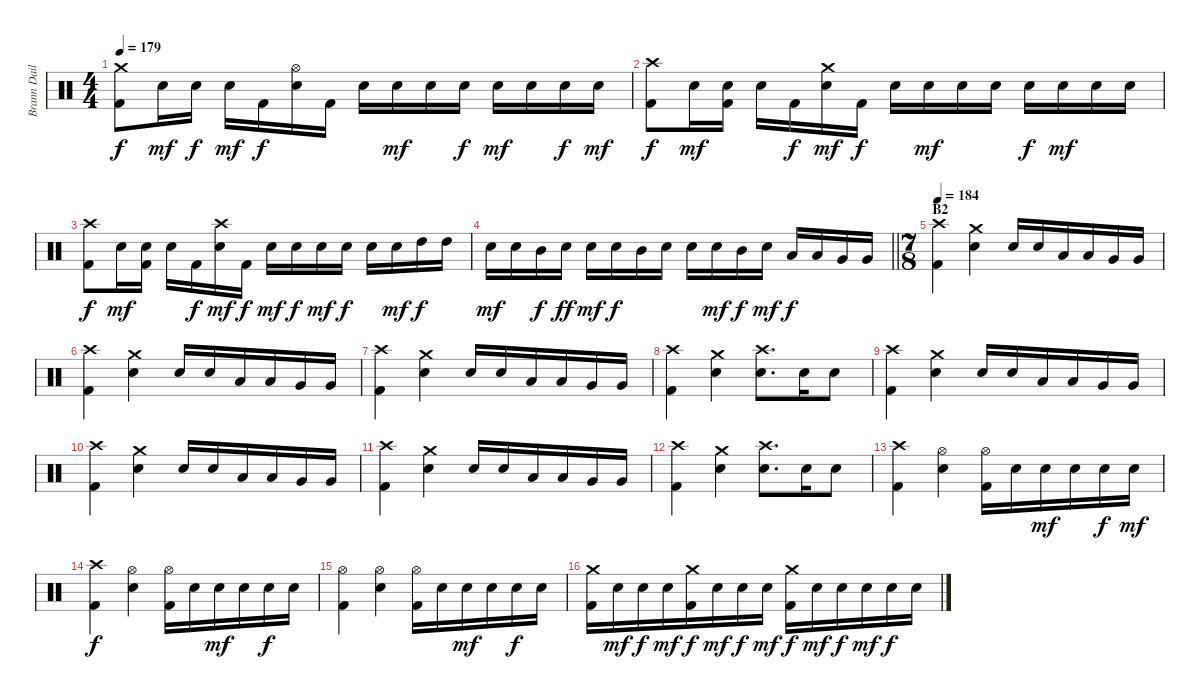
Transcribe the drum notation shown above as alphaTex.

\track ("Brann Dailor" "Brann Dail") {instrument percussion}
\staff {score}
\articulation defaults
\ts (4 4)
\tempo 179
\clef neutral
\ks c
("Crash medium (hit)" "Kick (hit) 2").8{dy f} "Snare (hit) 2".16{dy mf} "Snare (hit) 2".16{dy f} "Snare (hit) 2".16{dy mf} "Kick (hit) 2".16{dy f} ("Hi-Hat (open)" "Snare (hit) 2").16 "Kick (hit) 2".16 "Snare (hit) 2".16 "Snare (hit) 2".16{dy mf} "Snare (hit) 2".16 "Snare (hit) 2".16{dy f} "Snare (hit) 2".16{dy mf} "Snare (hit) 2".16 "Snare (hit) 2".16{dy f} "Snare (hit) 2".16{dy mf} |
("Crash high (hit)" "Kick (hit) 2").8{dy f} "Snare (hit) 2".16{dy mf} ("Snare (hit) 2" "Kick (hit) 2").16 "Snare (hit) 2".16 "Kick (hit) 2".16{dy f} ("Crash medium (hit)" "Snare (hit) 2").16{dy mf} "Kick (hit) 2".16{dy f} "Snare (hit) 2".16 "Snare (hit) 2".16{dy mf} "Snare (hit) 2".16 "Snare (hit) 2".16 "Snare (hit) 2".16{dy f} "Snare (hit) 2".16{dy mf} "Snare (hit) 2".16 "Snare (hit) 2".16 |
("Crash high (hit)" "Kick (hit) 2").8{dy f} "Snare (hit) 2".16{dy mf} ("Snare (hit) 2" "Kick (hit) 2").16 "Snare (hit) 2".16 "Kick (hit) 2".16{dy f} ("Crash high (hit)" "Snare (hit) 2").16{dy mf} "Kick (hit) 2".16{dy f} "Snare (hit) 2".16{dy mf} "Snare (hit) 2".16{dy f} "Snare (hit) 2".16{dy mf} "Snare (hit) 2".16{dy f} "Snare (hit) 2".16 "Snare (hit) 2".16{dy mf} "High Tom (hit)".16{dy f} "High Tom (hit)".16 |
\barLineRight lightlight "Snare (hit) 2".16{dy mf} "Snare (hit) 2".16 "Mid Tom (hit)".16{dy f} "Snare (hit) 2".16{dy ff} "Snare (hit) 2".16{dy mf} "Snare (hit) 2".16{dy f} "Mid Tom (hit)".16 "Snare (hit) 2".16 "Snare (hit) 2".16 "Snare (hit) 2".16{dy mf} "Mid Tom (hit)".16{dy f} "Snare (hit) 2".16{dy mf} "Low Tom (hit)".16{dy f} "Low Tom (hit)".16 "Very Low Tom (hit)".16 "Very Low Tom (hit)".16
|
\ts (7 8)
\section ("" "B2")
\tempo 184
("Crash high (hit)" "Kick (hit) 2").4 ("Crash medium (hit)" "Snare (hit) 2").4 "Snare (hit) 2".16 "Snare (hit) 2".16 "Low Tom (hit)".16 "Low Tom (hit)".16 "Very Low Tom (hit)".16 "Very Low Tom (hit)".16 |
("Crash high (hit)" "Kick (hit) 2").4 ("Crash medium (hit)" "Snare (hit) 2").4 "Snare (hit) 2".16 "Snare (hit) 2".16 "Low Tom (hit)".16 "Low Tom (hit)".16 "Very Low Tom (hit)".16 "Very Low Tom (hit)".16 |
("Crash high (hit)" "Kick (hit) 2").4 ("Crash medium (hit)" "Snare (hit) 2").4 "Snare (hit) 2".16 "Snare (hit) 2".16 "Low Tom (hit)".16 "Low Tom (hit)".16 "Very Low Tom (hit)".16 "Very Low Tom (hit)".16 |
("Crash high (hit)" "Kick (hit) 2").4 ("Crash medium (hit)" "Snare (hit) 2").4 ("Crash high (hit)" "Snare (hit) 2").8{d} "Snare (hit) 2".16 "Snare (hit) 2".8 |
("Crash high (hit)" "Kick (hit) 2").4 ("Crash medium (hit)" "Snare (hit) 2").4 "Snare (hit) 2".16 "Snare (hit) 2".16 "Low Tom (hit)".16 "Low Tom (hit)".16 "Very Low Tom (hit)".16 "Very Low Tom (hit)".16 |
("Crash high (hit)" "Kick (hit) 2").4 ("Crash medium (hit)" "Snare (hit) 2").4 "Snare (hit) 2".16 "Snare (hit) 2".16 "Low Tom (hit)".16 "Low Tom (hit)".16 "Very Low Tom (hit)".16 "Very Low Tom (hit)".16 |
("Crash high (hit)" "Kick (hit) 2").4 ("Crash medium (hit)" "Snare (hit) 2").4 "Snare (hit) 2".16 "Snare (hit) 2".16 "Low Tom (hit)".16 "Low Tom (hit)".16 "Very Low Tom (hit)".16 "Very Low Tom (hit)".16 |
("Crash high (hit)" "Kick (hit) 2").4 ("Crash medium (hit)" "Snare (hit) 2").4 ("Crash high (hit)" "Snare (hit) 2").8{d} "Snare (hit) 2".16 "Snare (hit) 2".8 |
("Crash high (hit)" "Kick (hit) 2").4 ("Hi-Hat (open)" "Snare (hit) 2").4 ("Hi-Hat (open)" "Kick (hit) 2").16 "Snare (hit) 2".16 "Snare (hit) 2".16{dy mf} "Snare (hit) 2".16 "Snare (hit) 2".16{dy f} "Snare (hit) 2".16{dy mf} |
("Crash high (hit)" "Kick (hit) 2").4{dy f} ("Hi-Hat (open)" "Snare (hit) 2").4 ("Hi-Hat (open)" "Kick (hit) 2").16 "Snare (hit) 2".16 "Snare (hit) 2".16{dy mf} "Snare (hit) 2".16 "Snare (hit) 2".16{dy f} "Snare (hit) 2".16 |
("Hi-Hat (open)" "Kick (hit) 2").4 ("Hi-Hat (open)" "Snare (hit) 2").4 ("Hi-Hat (open)" "Kick (hit) 2").16 "Snare (hit) 2".16 "Snare (hit) 2".16{dy mf} "Snare (hit) 2".16 "Snare (hit) 2".16{dy f} "Snare (hit) 2".16 |
("Crash medium (hit)" "Kick (hit) 2").16 "Snare (hit) 2".16{dy mf} "Snare (hit) 2".16{dy f} "Snare (hit) 2".16{dy mf} ("Crash medium (hit)" "Kick (hit) 2").16{dy f} "Snare (hit) 2".16{dy mf} "Snare (hit) 2".16{dy f} "Snare (hit) 2".16{dy mf} ("Crash medium (hit)" "Kick (hit) 2").16{dy f} "Snare (hit) 2".16{dy mf} "Snare (hit) 2".16{dy f} "Snare (hit) 2".16{dy mf} "Snare (hit) 2".16{dy f} "Snare (hit) 2".16
